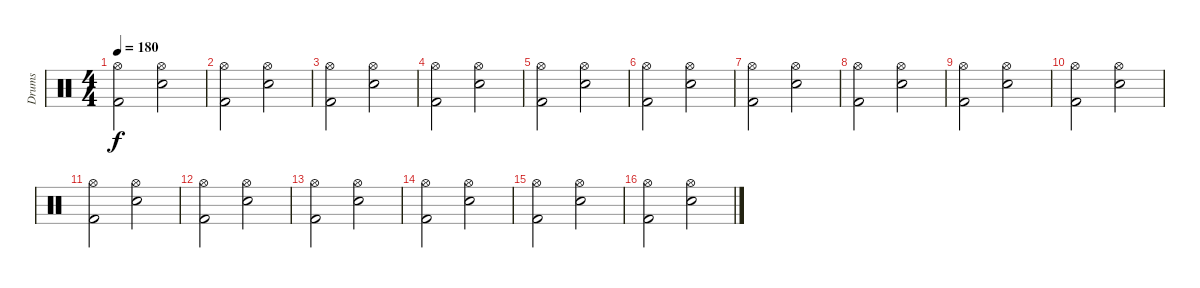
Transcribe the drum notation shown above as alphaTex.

\track ("Drums" "Drums") {instrument percussion}
\staff {score}
\articulation defaults
\ts (4 4)
\tempo 180
\clef neutral
\ks c
("Hi-Hat (open)" "Kick (hit) 2").2{dy f} ("Hi-Hat (open)" "Electric Snare (hit)").2 |
("Hi-Hat (open)" "Kick (hit) 2").2 ("Hi-Hat (open)" "Electric Snare (hit)").2 |
("Hi-Hat (open)" "Kick (hit) 2").2 ("Hi-Hat (open)" "Electric Snare (hit)").2 |
("Hi-Hat (open)" "Kick (hit) 2").2 ("Hi-Hat (open)" "Electric Snare (hit)").2 |
("Hi-Hat (open)" "Kick (hit) 2").2 ("Hi-Hat (open)" "Electric Snare (hit)").2 |
("Hi-Hat (open)" "Kick (hit) 2").2 ("Hi-Hat (open)" "Electric Snare (hit)").2 |
("Hi-Hat (open)" "Kick (hit) 2").2 ("Hi-Hat (open)" "Electric Snare (hit)").2 |
("Hi-Hat (open)" "Kick (hit) 2").2 ("Hi-Hat (open)" "Electric Snare (hit)").2 |
("Hi-Hat (open)" "Kick (hit) 2").2 ("Hi-Hat (open)" "Electric Snare (hit)").2 |
("Hi-Hat (open)" "Kick (hit) 2").2 ("Hi-Hat (open)" "Electric Snare (hit)").2 |
("Hi-Hat (open)" "Kick (hit) 2").2 ("Hi-Hat (open)" "Electric Snare (hit)").2 |
("Hi-Hat (open)" "Kick (hit) 2").2 ("Hi-Hat (open)" "Electric Snare (hit)").2 |
("Hi-Hat (open)" "Kick (hit) 2").2 ("Hi-Hat (open)" "Electric Snare (hit)").2 |
("Hi-Hat (open)" "Kick (hit) 2").2 ("Hi-Hat (open)" "Electric Snare (hit)").2 |
("Hi-Hat (open)" "Kick (hit) 2").2 ("Hi-Hat (open)" "Electric Snare (hit)").2 |
("Hi-Hat (open)" "Kick (hit) 2").2 ("Hi-Hat (open)" "Electric Snare (hit)").2
